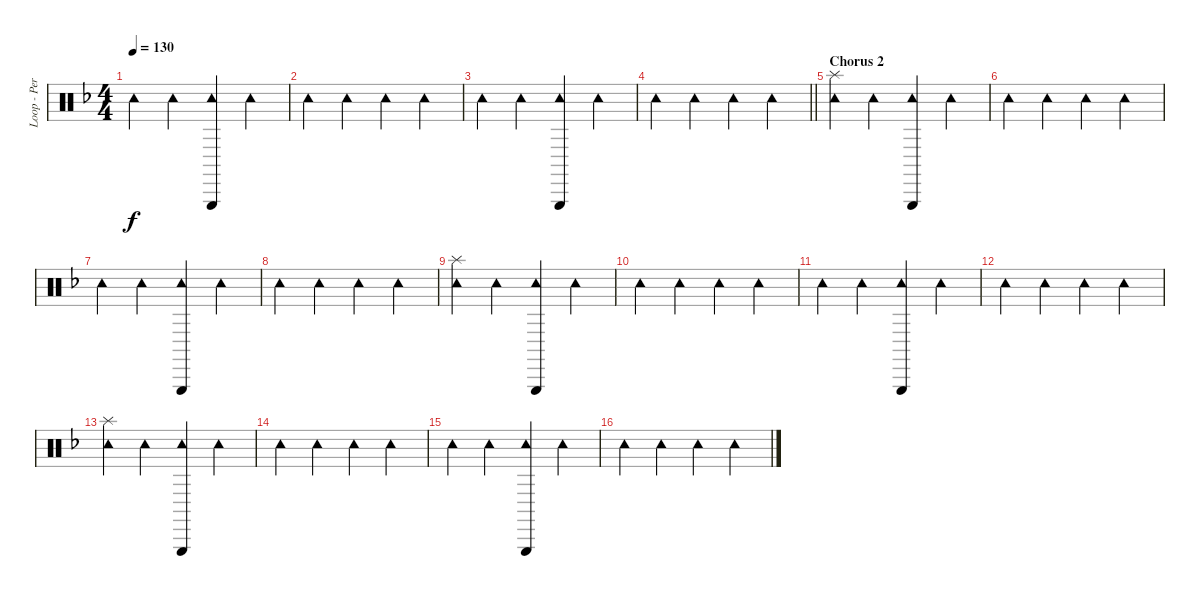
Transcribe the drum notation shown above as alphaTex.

\track ("Loop - Percussion FX" "Loop - Per") {instrument percussion}
\staff {score}
\articulation defaults
\ts (4 4)
\tempo 130
\clef neutral
\ks f "Tambourine (hit)".4{dy f} "Tambourine (hit)".4
("Tambourine (hit)" "Triangle (hit)").4 "Tambourine (hit)".4 |
"Tambourine (hit)".4 "Tambourine (hit)".4 "Tambourine (hit)".4 "Tambourine (hit)".4 |
"Tambourine (hit)".4 "Tambourine (hit)".4 ("Tambourine (hit)" "Triangle (hit)").4 "Tambourine (hit)".4 |
\barLineRight lightlight "Tambourine (hit)".4 "Tambourine (hit)".4 "Tambourine (hit)".4 "Tambourine (hit)".4
|
\section ("" "Chorus 2")
("Tambourine (hit)" "Splash (hit)").4 "Tambourine (hit)".4 ("Tambourine (hit)" "Triangle (hit)").4 "Tambourine (hit)".4 |
"Tambourine (hit)".4 "Tambourine (hit)".4 "Tambourine (hit)".4 "Tambourine (hit)".4 |
"Tambourine (hit)".4 "Tambourine (hit)".4 ("Tambourine (hit)" "Triangle (hit)").4 "Tambourine (hit)".4 |
"Tambourine (hit)".4 "Tambourine (hit)".4 "Tambourine (hit)".4 "Tambourine (hit)".4 |
("Tambourine (hit)" "Splash (hit)").4 "Tambourine (hit)".4 ("Tambourine (hit)" "Triangle (hit)").4 "Tambourine (hit)".4 |
"Tambourine (hit)".4 "Tambourine (hit)".4 "Tambourine (hit)".4 "Tambourine (hit)".4 |
"Tambourine (hit)".4 "Tambourine (hit)".4 ("Tambourine (hit)" "Triangle (hit)").4 "Tambourine (hit)".4 |
"Tambourine (hit)".4 "Tambourine (hit)".4 "Tambourine (hit)".4 "Tambourine (hit)".4 |
("Tambourine (hit)" "Splash (hit)").4 "Tambourine (hit)".4 ("Tambourine (hit)" "Triangle (hit)").4 "Tambourine (hit)".4 |
"Tambourine (hit)".4 "Tambourine (hit)".4 "Tambourine (hit)".4 "Tambourine (hit)".4 |
"Tambourine (hit)".4 "Tambourine (hit)".4 ("Tambourine (hit)" "Triangle (hit)").4 "Tambourine (hit)".4 |
"Tambourine (hit)".4 "Tambourine (hit)".4 "Tambourine (hit)".4 "Tambourine (hit)".4
